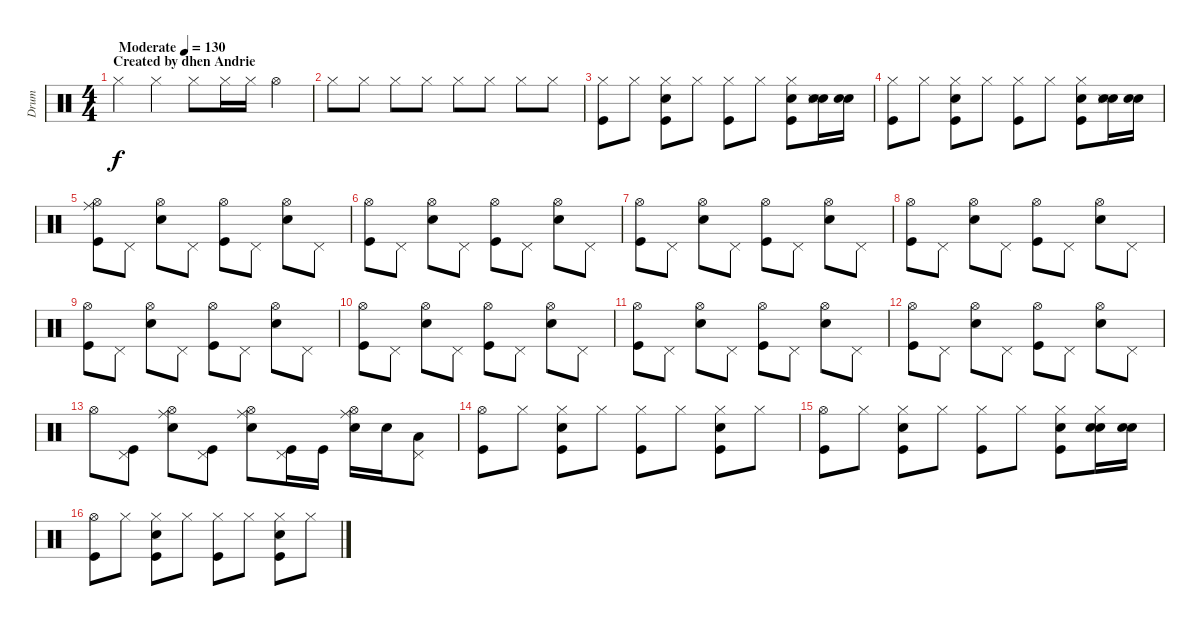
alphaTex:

\track ("Drum" "Drum") {instrument percussion}
\staff {score}
\articulation defaults
\ts (4 4)
\section ("" "Created by dhen Andrie")
\tempo (130 "Moderate")
\clef neutral
\ks c "Hi-Hat (closed)".4{dy f} "Hi-Hat (closed)".4 "Hi-Hat (closed)".8 "Hi-Hat (closed)".16 "Hi-Hat (closed)".16 "Hi-Hat (open)".4
|
"Hi-Hat (closed)".8 "Hi-Hat (closed)".8 "Hi-Hat (closed)".8 "Hi-Hat (closed)".8 "Hi-Hat (closed)".8 "Hi-Hat (closed)".8 "Hi-Hat (closed)".8 "Hi-Hat (closed)".8 |
("Hi-Hat (closed)" "Kick (hit)").8 "Hi-Hat (closed)".8 ("Hi-Hat (closed)" "Kick (hit)" "Snare (hit) 2").8 "Hi-Hat (closed)".8 ("Hi-Hat (closed)" "Kick (hit)").8 "Hi-Hat (closed)".8 ("Hi-Hat (closed)" "Kick (hit)" "Snare (hit) 2").8 ("Snare (hit) 2" "Snare (hit) 2" "Snare (side stick) 3").16 ("Snare (hit) 2" "Snare (hit) 2").16 |
("Hi-Hat (closed)" "Kick (hit)").8 "Hi-Hat (closed)".8 ("Hi-Hat (closed)" "Kick (hit)" "Snare (hit) 2").8 "Hi-Hat (closed)".8 ("Hi-Hat (closed)" "Kick (hit)").8 "Hi-Hat (closed)".8 ("Hi-Hat (closed)" "Kick (hit)" "Snare (hit) 2").8 ("Snare (hit) 2" "Snare (hit) 2" "Snare (side stick) 3").16 ("Snare (hit) 2" "Snare (hit) 2").16 |
("Kick (hit)" "Hi-Hat (open)" "Ride (middle)").8 "Pedal Hi-Hat (hit)".8 ("Snare (hit) 2" "Hi-Hat (open)").8 "Pedal Hi-Hat (hit)".8 ("Kick (hit)" "Hi-Hat (open)").8 "Pedal Hi-Hat (hit)".8 ("Snare (hit) 2" "Hi-Hat (open)").8 "Pedal Hi-Hat (hit)".8 |
("Kick (hit)" "Hi-Hat (open)").8 "Pedal Hi-Hat (hit)".8 ("Snare (hit) 2" "Hi-Hat (open)").8 "Pedal Hi-Hat (hit)".8 ("Kick (hit)" "Hi-Hat (open)").8 "Pedal Hi-Hat (hit)".8 ("Snare (hit) 2" "Hi-Hat (open)").8 "Pedal Hi-Hat (hit)".8 |
("Kick (hit)" "Hi-Hat (open)").8 "Pedal Hi-Hat (hit)".8 ("Snare (hit) 2" "Hi-Hat (open)").8 "Pedal Hi-Hat (hit)".8 ("Kick (hit)" "Hi-Hat (open)").8 "Pedal Hi-Hat (hit)".8 ("Snare (hit) 2" "Hi-Hat (open)").8 "Pedal Hi-Hat (hit)".8 |
("Kick (hit)" "Hi-Hat (open)").8 "Pedal Hi-Hat (hit)".8 ("Snare (hit) 2" "Hi-Hat (open)").8 "Pedal Hi-Hat (hit)".8 ("Kick (hit)" "Hi-Hat (open)").8 "Pedal Hi-Hat (hit)".8 ("Snare (hit) 2" "Hi-Hat (open)").8 "Pedal Hi-Hat (hit)".8 |
("Kick (hit)" "Hi-Hat (open)").8 "Pedal Hi-Hat (hit)".8 ("Snare (hit) 2" "Hi-Hat (open)").8 "Pedal Hi-Hat (hit)".8 ("Kick (hit)" "Hi-Hat (open)").8 "Pedal Hi-Hat (hit)".8 ("Snare (hit) 2" "Hi-Hat (open)").8 "Pedal Hi-Hat (hit)".8 |
("Kick (hit)" "Hi-Hat (open)").8 "Pedal Hi-Hat (hit)".8 ("Snare (hit) 2" "Hi-Hat (open)").8 "Pedal Hi-Hat (hit)".8 ("Kick (hit)" "Hi-Hat (open)").8 "Pedal Hi-Hat (hit)".8 ("Snare (hit) 2" "Hi-Hat (open)").8 "Pedal Hi-Hat (hit)".8 |
("Kick (hit)" "Hi-Hat (open)").8 "Pedal Hi-Hat (hit)".8 ("Snare (hit) 2" "Hi-Hat (open)").8 "Pedal Hi-Hat (hit)".8 ("Kick (hit)" "Hi-Hat (open)").8 "Pedal Hi-Hat (hit)".8 ("Snare (hit) 2" "Hi-Hat (open)").8 "Pedal Hi-Hat (hit)".8 |
("Kick (hit)" "Hi-Hat (open)").8 "Pedal Hi-Hat (hit)".8 ("Snare (hit) 2" "Hi-Hat (open)").8 "Pedal Hi-Hat (hit)".8 ("Kick (hit)" "Hi-Hat (open)").8 "Pedal Hi-Hat (hit)".8 ("Snare (hit) 2" "Hi-Hat (open)").8 "Pedal Hi-Hat (hit)".8 |
"Hi-Hat (open)".8 ("Kick (hit)" "Pedal Hi-Hat (hit)").8 ("Snare (hit) 2" "Hi-Hat (open)" "Ride (middle)").8 ("Pedal Hi-Hat (hit)" "Kick (hit)").8 ("Snare (hit) 2" "Hi-Hat (open)" "Ride (middle)").8 ("Pedal Hi-Hat (hit)" "Kick (hit)").16 "Kick (hit)".16 ("Snare (hit) 2" "Hi-Hat (open)" "Ride (middle)").16 "Snare (hit) 2".16 ("Low Floor Tom (hit)" "Pedal Hi-Hat (hit)").8 |
("Kick (hit)" "Hi-Hat (open)").8 "Hi-Hat (closed)".8 ("Kick (hit)" "Snare (hit) 2" "Hi-Hat (closed)").8 "Hi-Hat (closed)".8 ("Hi-Hat (closed)" "Kick (hit)").8 "Hi-Hat (closed)".8 ("Kick (hit)" "Snare (hit) 2" "Hi-Hat (closed)").8 "Hi-Hat (closed)".8 |
("Kick (hit)" "Hi-Hat (open)").8 "Hi-Hat (closed)".8 ("Kick (hit)" "Snare (hit) 2" "Hi-Hat (closed)").8 "Hi-Hat (closed)".8 ("Hi-Hat (closed)" "Kick (hit)").8 "Hi-Hat (closed)".8 ("Kick (hit)" "Snare (hit) 2" "Hi-Hat (closed)").8 ("Snare (hit) 2" "Snare (hit) 2" "Hi-Hat (closed)").16 ("Snare (hit) 2" "Snare (hit) 2").16 |
("Kick (hit)" "Hi-Hat (open)").8 "Hi-Hat (closed)".8 ("Kick (hit)" "Snare (hit) 2" "Hi-Hat (closed)").8 "Hi-Hat (closed)".8 ("Hi-Hat (closed)" "Kick (hit)").8 "Hi-Hat (closed)".8 ("Kick (hit)" "Snare (hit) 2" "Hi-Hat (closed)").8 "Hi-Hat (closed)".8
